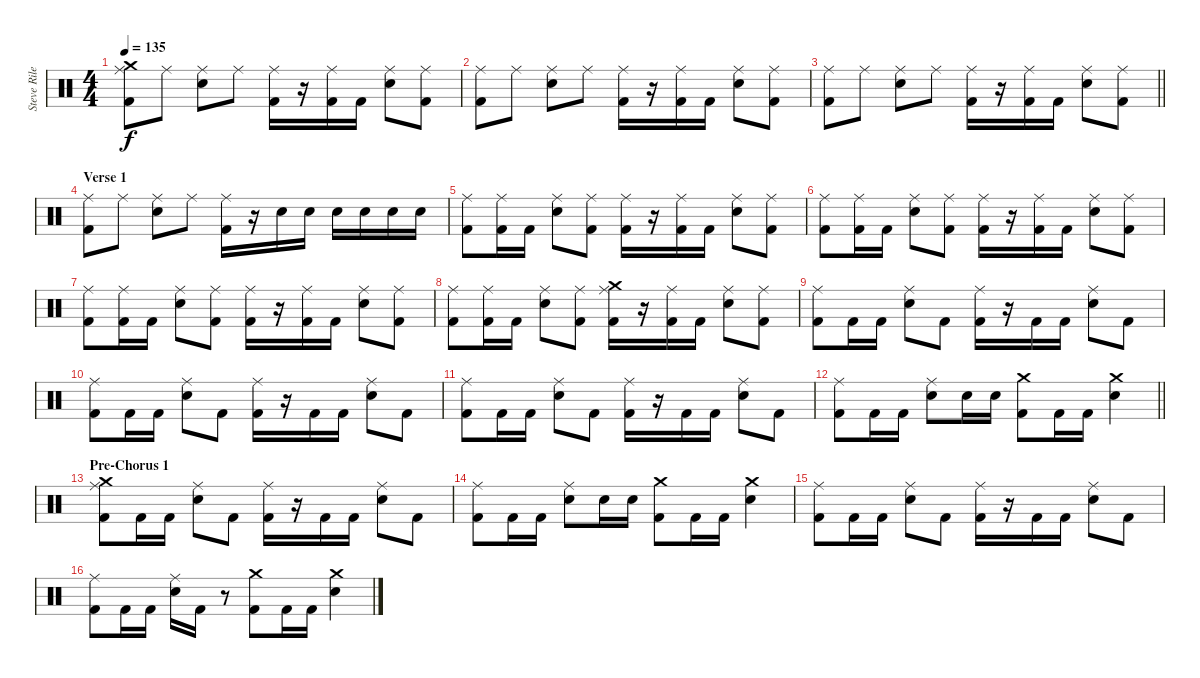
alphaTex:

\track ("Steve Riley" "Steve Rile") {instrument percussion}
\staff {score}
\articulation defaults
\ts (4 4)
\tempo 135
\clef neutral
\ks c
("Crash medium (hit)" "Ride (middle)" "Kick (hit) 2").8{dy f} "Ride (middle)".8 ("Ride (middle)" "Snare (hit) 2").8 "Ride (middle)".8 ("Ride (middle)" "Kick (hit) 2").16 r.16 ("Ride (middle)" "Kick (hit) 2").16 "Kick (hit) 2".16 ("Ride (middle)" "Snare (hit) 2").8 ("Ride (middle)" "Kick (hit) 2").8 |
("Ride (middle)" "Kick (hit) 2").8 "Ride (middle)".8 ("Ride (middle)" "Snare (hit) 2").8 "Ride (middle)".8 ("Ride (middle)" "Kick (hit) 2").16 r.16 ("Ride (middle)" "Kick (hit) 2").16 "Kick (hit) 2".16 ("Ride (middle)" "Snare (hit) 2").8 ("Ride (middle)" "Kick (hit) 2").8 |
\barLineRight lightlight
("Ride (middle)" "Kick (hit) 2").8 "Ride (middle)".8 ("Ride (middle)" "Snare (hit) 2").8 "Ride (middle)".8 ("Ride (middle)" "Kick (hit) 2").16 r.16 ("Ride (middle)" "Kick (hit) 2").16 "Kick (hit) 2".16 ("Ride (middle)" "Snare (hit) 2").8 ("Ride (middle)" "Kick (hit) 2").8 |
\section ("" "Verse 1")
("Ride (middle)" "Kick (hit) 2").8 "Ride (middle)".8 ("Ride (middle)" "Snare (hit) 2").8 "Ride (middle)".8 ("Ride (middle)" "Kick (hit) 2").16 r.16 "Snare (hit) 2".16 "Snare (hit) 2".16 "Snare (hit) 2".16 "Snare (hit) 2".16 "Snare (hit) 2".16 "Snare (hit) 2".16 |
("Ride (middle)" "Kick (hit) 2").8 ("Ride (middle)" "Kick (hit) 2").16 "Kick (hit) 2".16 ("Ride (middle)" "Snare (hit) 2").8 ("Ride (middle)" "Kick (hit) 2").8 ("Ride (middle)" "Kick (hit) 2").16 r.16 ("Ride (middle)" "Kick (hit) 2").16 "Kick (hit) 2".16 ("Ride (middle)" "Snare (hit) 2").8 ("Ride (middle)" "Kick (hit) 2").8 |
("Ride (middle)" "Kick (hit) 2").8 ("Ride (middle)" "Kick (hit) 2").16 "Kick (hit) 2".16 ("Ride (middle)" "Snare (hit) 2").8 ("Ride (middle)" "Kick (hit) 2").8 ("Ride (middle)" "Kick (hit) 2").16 r.16 ("Ride (middle)" "Kick (hit) 2").16 "Kick (hit) 2".16 ("Ride (middle)" "Snare (hit) 2").8 ("Ride (middle)" "Kick (hit) 2").8 |
("Ride (middle)" "Kick (hit) 2").8 ("Ride (middle)" "Kick (hit) 2").16 "Kick (hit) 2".16 ("Ride (middle)" "Snare (hit) 2").8 ("Ride (middle)" "Kick (hit) 2").8 ("Ride (middle)" "Kick (hit) 2").16 r.16 ("Ride (middle)" "Kick (hit) 2").16 "Kick (hit) 2".16 ("Ride (middle)" "Snare (hit) 2").8 ("Ride (middle)" "Kick (hit) 2").8 |
("Ride (middle)" "Kick (hit) 2").8 ("Ride (middle)" "Kick (hit) 2").16 "Kick (hit) 2".16 ("Ride (middle)" "Snare (hit) 2").8 ("Ride (middle)" "Kick (hit) 2").8 ("Crash medium (hit)" "Ride (middle)" "Kick (hit) 2").16 r.16 ("Ride (middle)" "Kick (hit) 2").16 "Kick (hit) 2".16 ("Ride (middle)" "Snare (hit) 2").8 ("Ride (middle)" "Kick (hit) 2").8 |
("Ride (middle)" "Kick (hit) 2").8 "Kick (hit) 2".16 "Kick (hit) 2".16 ("Ride (middle)" "Snare (hit) 2").8 "Kick (hit) 2".8 ("Ride (middle)" "Kick (hit) 2").16 r.16 "Kick (hit) 2".16 "Kick (hit) 2".16 ("Ride (middle)" "Snare (hit) 2").8 "Kick (hit) 2".8 |
("Ride (middle)" "Kick (hit) 2").8 "Kick (hit) 2".16 "Kick (hit) 2".16 ("Ride (middle)" "Snare (hit) 2").8 "Kick (hit) 2".8 ("Ride (middle)" "Kick (hit) 2").16 r.16 "Kick (hit) 2".16 "Kick (hit) 2".16 ("Ride (middle)" "Snare (hit) 2").8 "Kick (hit) 2".8 |
("Ride (middle)" "Kick (hit) 2").8 "Kick (hit) 2".16 "Kick (hit) 2".16 ("Ride (middle)" "Snare (hit) 2").8 "Kick (hit) 2".8 ("Ride (middle)" "Kick (hit) 2").16 r.16 "Kick (hit) 2".16 "Kick (hit) 2".16 ("Ride (middle)" "Snare (hit) 2").8 "Kick (hit) 2".8 |
\barLineRight lightlight
("Ride (middle)" "Kick (hit) 2").8 "Kick (hit) 2".16 "Kick (hit) 2".16 ("Ride (middle)" "Snare (hit) 2").8 "Snare (hit) 2".16 "Snare (hit) 2".16 ("Crash medium (hit)" "Kick (hit) 2").8 "Kick (hit) 2".16 "Kick (hit) 2".16 ("Crash medium (hit)" "Snare (hit) 2").4 |
\section ("" "Pre-Chorus 1")
("Crash medium (hit)" "Ride (middle)" "Kick (hit) 2").8 "Kick (hit) 2".16 "Kick (hit) 2".16 ("Ride (middle)" "Snare (hit) 2").8 "Kick (hit) 2".8 ("Ride (middle)" "Kick (hit) 2").16 r.16 "Kick (hit) 2".16 "Kick (hit) 2".16 ("Ride (middle)" "Snare (hit) 2").8 "Kick (hit) 2".8 |
("Ride (middle)" "Kick (hit) 2").8 "Kick (hit) 2".16 "Kick (hit) 2".16 ("Ride (middle)" "Snare (hit) 2").8 "Snare (hit) 2".16 "Snare (hit) 2".16 ("Crash medium (hit)" "Kick (hit) 2").8 "Kick (hit) 2".16 "Kick (hit) 2".16 ("Crash medium (hit)" "Snare (hit) 2").4 |
("Ride (middle)" "Kick (hit) 2").8 "Kick (hit) 2".16 "Kick (hit) 2".16 ("Ride (middle)" "Snare (hit) 2").8 "Kick (hit) 2".8 ("Ride (middle)" "Kick (hit) 2").16 r.16 "Kick (hit) 2".16 "Kick (hit) 2".16 ("Ride (middle)" "Snare (hit) 2").8 "Kick (hit) 2".8 |
("Ride (middle)" "Kick (hit) 2").8 "Kick (hit) 2".16 "Kick (hit) 2".16 ("Ride (middle)" "Snare (hit) 2").16 "Kick (hit) 2".16 r.8 ("Crash medium (hit)" "Kick (hit) 2").8 "Kick (hit) 2".16 "Kick (hit) 2".16 ("Crash medium (hit)" "Snare (hit) 2").4
